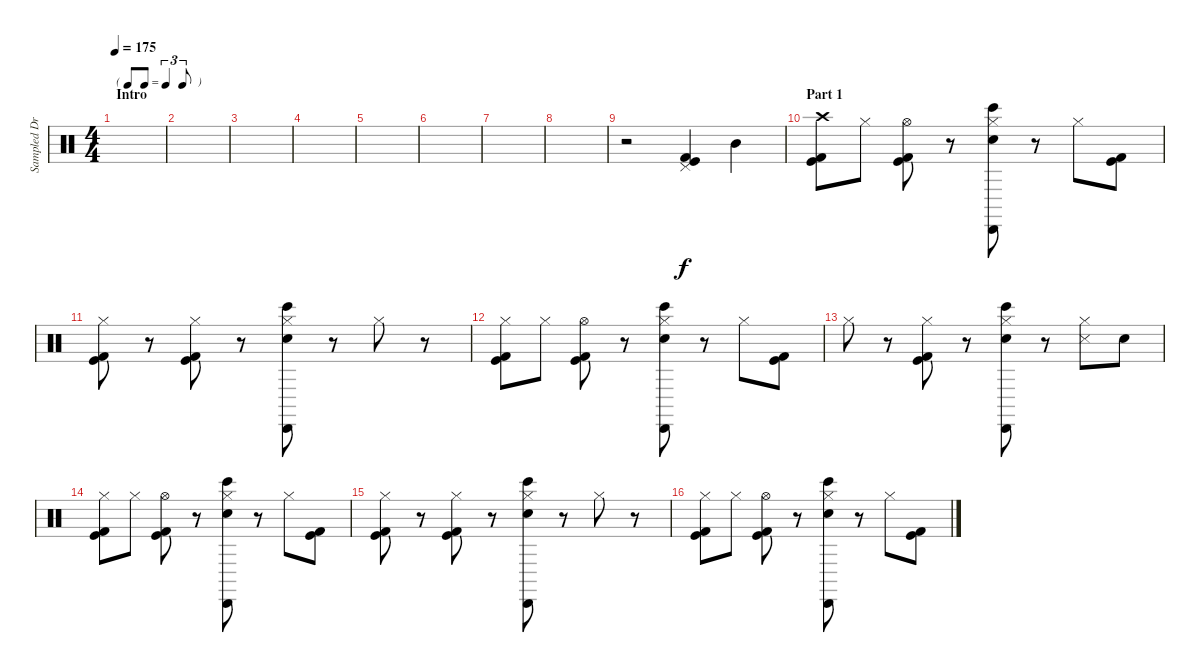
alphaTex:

\track ("Sampled Drums" "Sampled Dr") {instrument percussion}
\staff {score}
\articulation defaults
\ts (4 4)
\tf triplet8th
\section ("" "Intro")
\tempo 175
\clef neutral
\ks c
|
|
|
|
|
|
|
|
r.2 ("Pedal Hi-Hat (hit)" "Kick (hit) 2" "Kick (hit)").4 "Mid Tom (hit)".4 |
\section ("" "Part 1")
("Crash high (hit)" "Kick (hit) 2" "Kick (hit)").8 "Hi-Hat (closed)".8 ("Hi-Hat (open)" "Kick (hit) 2" "Kick (hit)").8 r.8 ("Hi-Hat (closed)" "Bongo High (hit)" "Cabasa (hit)" "Snare (hit) 2").8 r.8 "Hi-Hat (closed)".8 ("Kick (hit) 2" "Kick (hit)").8 |
("Hi-Hat (closed)" "Kick (hit) 2" "Kick (hit)").8 r.8 ("Hi-Hat (closed)" "Kick (hit) 2" "Kick (hit)").8 r.8 ("Hi-Hat (closed)" "Bongo High (hit)" "Cabasa (hit)" "Snare (hit) 2").8 r.8 "Hi-Hat (closed)".8 r.8 |
("Hi-Hat (closed)" "Kick (hit) 2" "Kick (hit)").8 "Hi-Hat (closed)".8 ("Hi-Hat (open)" "Kick (hit) 2" "Kick (hit)").8 r.8 ("Hi-Hat (closed)" "Bongo High (hit)" "Cabasa (hit)" "Snare (hit) 2").8 r.8 "Hi-Hat (closed)".8 ("Kick (hit) 2" "Kick (hit)").8 |
"Hi-Hat (closed)".8 r.8 ("Hi-Hat (closed)" "Kick (hit) 2" "Kick (hit)").8 r.8 ("Hi-Hat (closed)" "Bongo High (hit)" "Cabasa (hit)" "Snare (hit) 2").8 r.8 ("Hi-Hat (closed)" "Metronome (hit)").8 "Metronome (bell)".8 |
("Hi-Hat (closed)" "Kick (hit) 2" "Kick (hit)").8 "Hi-Hat (closed)".8 ("Hi-Hat (open)" "Kick (hit) 2" "Kick (hit)").8 r.8 ("Hi-Hat (closed)" "Bongo High (hit)" "Cabasa (hit)" "Snare (hit) 2").8 r.8 "Hi-Hat (closed)".8 ("Kick (hit) 2" "Kick (hit)").8 |
("Hi-Hat (closed)" "Kick (hit) 2" "Kick (hit)").8 r.8 ("Hi-Hat (closed)" "Kick (hit) 2" "Kick (hit)").8 r.8 ("Hi-Hat (closed)" "Bongo High (hit)" "Cabasa (hit)" "Snare (hit) 2").8 r.8 "Hi-Hat (closed)".8 r.8 |
("Hi-Hat (closed)" "Kick (hit) 2" "Kick (hit)").8 "Hi-Hat (closed)".8 ("Hi-Hat (open)" "Kick (hit) 2" "Kick (hit)").8 r.8 ("Hi-Hat (closed)" "Bongo High (hit)" "Cabasa (hit)" "Snare (hit) 2").8 r.8 "Hi-Hat (closed)".8 ("Kick (hit) 2" "Kick (hit)").8
